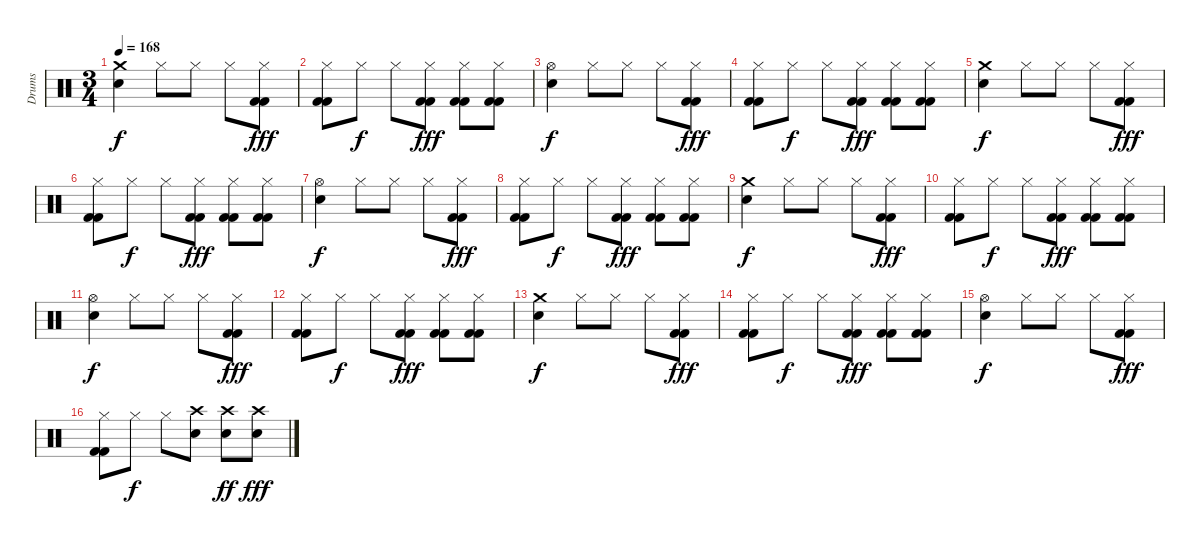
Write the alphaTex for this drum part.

\track ("Drums" "Drums") {instrument percussion}
\staff {score}
\articulation defaults
\ts (3 4)
\tempo 168
\clef neutral
\ks c
("Crash medium (hit)" "Electric Snare (hit)").4{dy f} "Hi-Hat (closed)".8 "Hi-Hat (closed)".8 "Hi-Hat (closed)".8 ("Hi-Hat (closed)" "Kick (hit) 2" "Kick (hit) 2").8{dy fff} |
("Hi-Hat (closed)" "Kick (hit) 2" "Kick (hit) 2").8 "Hi-Hat (closed)".8{dy f} "Hi-Hat (closed)".8 ("Hi-Hat (closed)" "Kick (hit) 2" "Kick (hit) 2").8{dy fff} ("Hi-Hat (closed)" "Kick (hit) 2" "Kick (hit) 2").8 ("Hi-Hat (closed)" "Kick (hit) 2" "Kick (hit) 2").8 |
("Hi-Hat (open)" "Electric Snare (hit)").4{dy f} "Hi-Hat (closed)".8 "Hi-Hat (closed)".8 "Hi-Hat (closed)".8 ("Hi-Hat (closed)" "Kick (hit) 2" "Kick (hit) 2").8{dy fff} |
("Hi-Hat (closed)" "Kick (hit) 2" "Kick (hit) 2").8 "Hi-Hat (closed)".8{dy f} "Hi-Hat (closed)".8 ("Hi-Hat (closed)" "Kick (hit) 2" "Kick (hit) 2").8{dy fff} ("Hi-Hat (closed)" "Kick (hit) 2" "Kick (hit) 2").8 ("Hi-Hat (closed)" "Kick (hit) 2" "Kick (hit) 2").8 |
("Crash medium (hit)" "Electric Snare (hit)").4{dy f} "Hi-Hat (closed)".8 "Hi-Hat (closed)".8 "Hi-Hat (closed)".8 ("Hi-Hat (closed)" "Kick (hit) 2" "Kick (hit) 2").8{dy fff} |
("Hi-Hat (closed)" "Kick (hit) 2" "Kick (hit) 2").8 "Hi-Hat (closed)".8{dy f} "Hi-Hat (closed)".8 ("Hi-Hat (closed)" "Kick (hit) 2" "Kick (hit) 2").8{dy fff} ("Hi-Hat (closed)" "Kick (hit) 2" "Kick (hit) 2").8 ("Hi-Hat (closed)" "Kick (hit) 2" "Kick (hit) 2").8 |
("Hi-Hat (open)" "Electric Snare (hit)").4{dy f} "Hi-Hat (closed)".8 "Hi-Hat (closed)".8 "Hi-Hat (closed)".8 ("Hi-Hat (closed)" "Kick (hit) 2" "Kick (hit) 2").8{dy fff} |
("Hi-Hat (closed)" "Kick (hit) 2" "Kick (hit) 2").8 "Hi-Hat (closed)".8{dy f} "Hi-Hat (closed)".8 ("Hi-Hat (closed)" "Kick (hit) 2" "Kick (hit) 2").8{dy fff} ("Hi-Hat (closed)" "Kick (hit) 2" "Kick (hit) 2").8 ("Hi-Hat (closed)" "Kick (hit) 2" "Kick (hit) 2").8 |
("Crash medium (hit)" "Electric Snare (hit)").4{dy f} "Hi-Hat (closed)".8 "Hi-Hat (closed)".8 "Hi-Hat (closed)".8 ("Hi-Hat (closed)" "Kick (hit) 2" "Kick (hit) 2").8{dy fff} |
("Hi-Hat (closed)" "Kick (hit) 2" "Kick (hit) 2").8 "Hi-Hat (closed)".8{dy f} "Hi-Hat (closed)".8 ("Hi-Hat (closed)" "Kick (hit) 2" "Kick (hit) 2").8{dy fff} ("Hi-Hat (closed)" "Kick (hit) 2" "Kick (hit) 2").8 ("Hi-Hat (closed)" "Kick (hit) 2" "Kick (hit) 2").8 |
("Hi-Hat (open)" "Electric Snare (hit)").4{dy f} "Hi-Hat (closed)".8 "Hi-Hat (closed)".8 "Hi-Hat (closed)".8 ("Hi-Hat (closed)" "Kick (hit) 2" "Kick (hit) 2").8{dy fff} |
("Hi-Hat (closed)" "Kick (hit) 2" "Kick (hit) 2").8 "Hi-Hat (closed)".8{dy f} "Hi-Hat (closed)".8 ("Hi-Hat (closed)" "Kick (hit) 2" "Kick (hit) 2").8{dy fff} ("Hi-Hat (closed)" "Kick (hit) 2" "Kick (hit) 2").8 ("Hi-Hat (closed)" "Kick (hit) 2" "Kick (hit) 2").8 |
("Crash medium (hit)" "Electric Snare (hit)").4{dy f} "Hi-Hat (closed)".8 "Hi-Hat (closed)".8 "Hi-Hat (closed)".8 ("Hi-Hat (closed)" "Kick (hit) 2" "Kick (hit) 2").8{dy fff} |
("Hi-Hat (closed)" "Kick (hit) 2" "Kick (hit) 2").8 "Hi-Hat (closed)".8{dy f} "Hi-Hat (closed)".8 ("Hi-Hat (closed)" "Kick (hit) 2" "Kick (hit) 2").8{dy fff} ("Hi-Hat (closed)" "Kick (hit) 2" "Kick (hit) 2").8 ("Hi-Hat (closed)" "Kick (hit) 2" "Kick (hit) 2").8 |
("Hi-Hat (open)" "Electric Snare (hit)").4{dy f} "Hi-Hat (closed)".8 "Hi-Hat (closed)".8 "Hi-Hat (closed)".8 ("Hi-Hat (closed)" "Kick (hit) 2" "Kick (hit) 2").8{dy fff} |
("Hi-Hat (closed)" "Kick (hit) 2" "Kick (hit) 2").8 "Hi-Hat (closed)".8{dy f} "Hi-Hat (closed)".8 ("Crash high (hit)" "Electric Snare (hit)").8 ("Crash high (hit)" "Electric Snare (hit)").8{dy ff} ("Crash high (hit)" "Electric Snare (hit)").8{dy fff}
